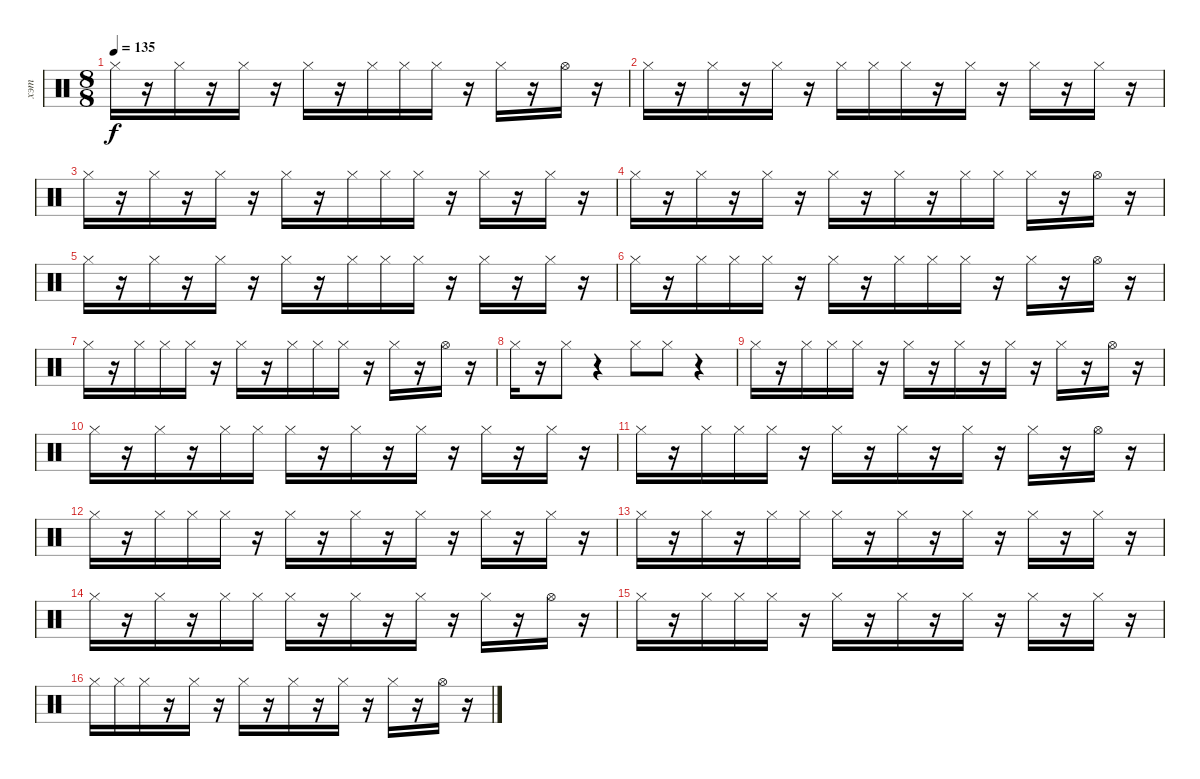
\track ("хэт" "хэт") {instrument percussion}
\staff {score}
\articulation defaults
\ts (8 8)
\tempo 135
\clef neutral
\ks c "Hi-Hat (closed)".16{dy f}
r.16 "Hi-Hat (closed)".16 r.16 "Hi-Hat (closed)".16 r.16 "Hi-Hat (closed)".16 r.16 "Hi-Hat (closed)".16 "Hi-Hat (closed)".16 "Hi-Hat (closed)".16 r.16 "Hi-Hat (closed)".16 r.16 "Hi-Hat (open)".16 r.16 |
"Hi-Hat (closed)".16 r.16 "Hi-Hat (closed)".16 r.16 "Hi-Hat (closed)".16 r.16 "Hi-Hat (closed)".16 "Hi-Hat (closed)".16 "Hi-Hat (closed)".16 r.16 "Hi-Hat (closed)".16 r.16 "Hi-Hat (closed)".16 r.16 "Hi-Hat (closed)".16 r.16 |
"Hi-Hat (closed)".16 r.16 "Hi-Hat (closed)".16 r.16 "Hi-Hat (closed)".16 r.16 "Hi-Hat (closed)".16 r.16 "Hi-Hat (closed)".16 "Hi-Hat (closed)".16 "Hi-Hat (closed)".16 r.16 "Hi-Hat (closed)".16 r.16 "Hi-Hat (closed)".16 r.16 |
"Hi-Hat (closed)".16 r.16 "Hi-Hat (closed)".16 r.16 "Hi-Hat (closed)".16 r.16 "Hi-Hat (closed)".16 r.16 "Hi-Hat (closed)".16 r.16 "Hi-Hat (closed)".16 "Hi-Hat (closed)".16 "Hi-Hat (closed)".16 r.16 "Hi-Hat (open)".16 r.16 |
"Hi-Hat (closed)".16 r.16 "Hi-Hat (closed)".16 r.16 "Hi-Hat (closed)".16 r.16 "Hi-Hat (closed)".16 r.16 "Hi-Hat (closed)".16 "Hi-Hat (closed)".16 "Hi-Hat (closed)".16 r.16 "Hi-Hat (closed)".16 r.16 "Hi-Hat (closed)".16 r.16 |
"Hi-Hat (closed)".16 r.16 "Hi-Hat (closed)".16 "Hi-Hat (closed)".16 "Hi-Hat (closed)".16 r.16 "Hi-Hat (closed)".16 r.16 "Hi-Hat (closed)".16 "Hi-Hat (closed)".16 "Hi-Hat (closed)".16 r.16 "Hi-Hat (closed)".16 r.16 "Hi-Hat (open)".16 r.16 |
"Hi-Hat (closed)".16 r.16 "Hi-Hat (closed)".16 "Hi-Hat (closed)".16 "Hi-Hat (closed)".16 r.16 "Hi-Hat (closed)".16 r.16 "Hi-Hat (closed)".16 "Hi-Hat (closed)".16 "Hi-Hat (closed)".16 r.16 "Hi-Hat (closed)".16 r.16 "Hi-Hat (open)".16 r.16 |
"Hi-Hat (closed)".16 r.16 "Hi-Hat (closed)".8 r.4 "Hi-Hat (closed)".8 "Hi-Hat (closed)".8 r.4 |
"Hi-Hat (closed)".16 r.16 "Hi-Hat (closed)".16 "Hi-Hat (closed)".16 "Hi-Hat (closed)".16 r.16 "Hi-Hat (closed)".16 r.16 "Hi-Hat (closed)".16 r.16 "Hi-Hat (closed)".16 r.16 "Hi-Hat (closed)".16 r.16 "Hi-Hat (open)".16 r.16 |
"Hi-Hat (closed)".16 r.16 "Hi-Hat (closed)".16 r.16 "Hi-Hat (closed)".16 "Hi-Hat (closed)".16 "Hi-Hat (closed)".16 r.16 "Hi-Hat (closed)".16 r.16 "Hi-Hat (closed)".16 r.16 "Hi-Hat (closed)".16 r.16 "Hi-Hat (closed)".16 r.16 |
"Hi-Hat (closed)".16 r.16 "Hi-Hat (closed)".16 "Hi-Hat (closed)".16 "Hi-Hat (closed)".16 r.16 "Hi-Hat (closed)".16 r.16 "Hi-Hat (closed)".16 r.16 "Hi-Hat (closed)".16 r.16 "Hi-Hat (closed)".16 r.16 "Hi-Hat (open)".16 r.16 |
"Hi-Hat (closed)".16 r.16 "Hi-Hat (closed)".16 "Hi-Hat (closed)".16 "Hi-Hat (closed)".16 r.16 "Hi-Hat (closed)".16 r.16 "Hi-Hat (closed)".16 r.16 "Hi-Hat (closed)".16 r.16 "Hi-Hat (closed)".16 r.16 "Hi-Hat (closed)".16 r.16 |
"Hi-Hat (closed)".16 r.16 "Hi-Hat (closed)".16 r.16 "Hi-Hat (closed)".16 "Hi-Hat (closed)".16 "Hi-Hat (closed)".16 r.16 "Hi-Hat (closed)".16 r.16 "Hi-Hat (closed)".16 r.16 "Hi-Hat (closed)".16 r.16 "Hi-Hat (closed)".16 r.16 |
"Hi-Hat (closed)".16 r.16 "Hi-Hat (closed)".16 r.16 "Hi-Hat (closed)".16 "Hi-Hat (closed)".16 "Hi-Hat (closed)".16 r.16 "Hi-Hat (closed)".16 r.16 "Hi-Hat (closed)".16 r.16 "Hi-Hat (closed)".16 r.16 "Hi-Hat (open)".16 r.16 |
"Hi-Hat (closed)".16 r.16 "Hi-Hat (closed)".16 "Hi-Hat (closed)".16 "Hi-Hat (closed)".16 r.16 "Hi-Hat (closed)".16 r.16 "Hi-Hat (closed)".16 r.16 "Hi-Hat (closed)".16 r.16 "Hi-Hat (closed)".16 r.16 "Hi-Hat (closed)".16 r.16 |
"Hi-Hat (closed)".16 "Hi-Hat (closed)".16 "Hi-Hat (closed)".16 r.16 "Hi-Hat (closed)".16 r.16 "Hi-Hat (closed)".16 r.16 "Hi-Hat (closed)".16 r.16 "Hi-Hat (closed)".16 r.16 "Hi-Hat (closed)".16 r.16 "Hi-Hat (open)".16 r.16
